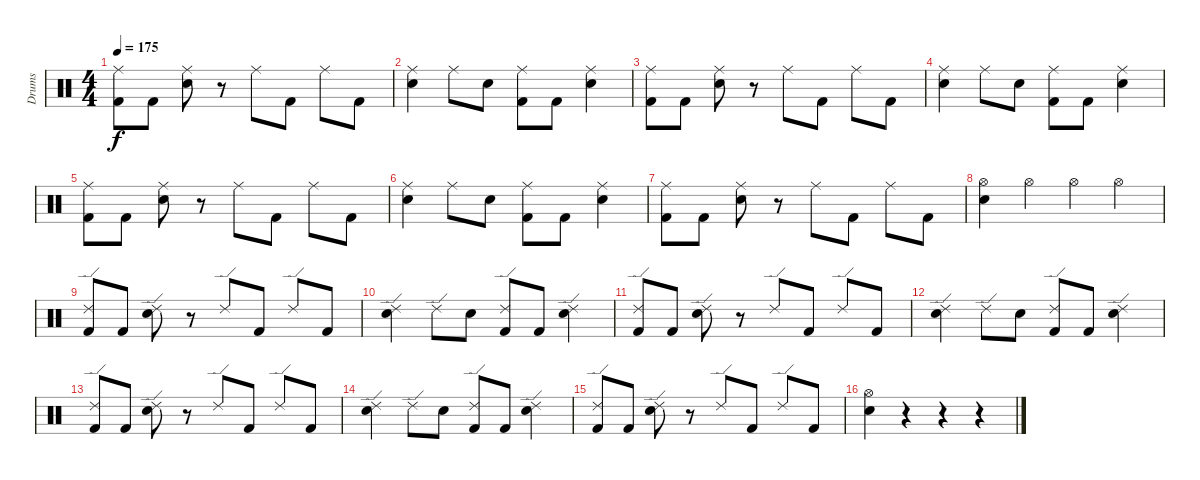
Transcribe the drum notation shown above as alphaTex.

\track ("Drums" "Drums") {instrument percussion}
\staff {score}
\articulation defaults
\ts (4 4)
\tempo 175
\clef neutral
\ks c
("Ride (middle)" "Kick (hit) 2").8{dy f} "Kick (hit) 2".8 ("Ride (middle)" "Electric Snare (hit)").8 r.8 "Ride (middle)".8 "Kick (hit) 2".8 "Ride (middle)".8 "Kick (hit) 2".8 |
("Ride (middle)" "Electric Snare (hit)").4 "Ride (middle)".8 "Electric Snare (hit)".8 ("Ride (middle)" "Kick (hit) 2").8 "Kick (hit) 2".8 ("Ride (middle)" "Electric Snare (hit)").4 |
("Ride (middle)" "Kick (hit) 2").8 "Kick (hit) 2".8 ("Ride (middle)" "Electric Snare (hit)").8 r.8 "Ride (middle)".8 "Kick (hit) 2".8 "Ride (middle)".8 "Kick (hit) 2".8 |
("Ride (middle)" "Electric Snare (hit)").4 "Ride (middle)".8 "Electric Snare (hit)".8 ("Ride (middle)" "Kick (hit) 2").8 "Kick (hit) 2".8 ("Ride (middle)" "Electric Snare (hit)").4 |
("Ride (middle)" "Kick (hit) 2").8 "Kick (hit) 2".8 ("Ride (middle)" "Electric Snare (hit)").8 r.8 "Ride (middle)".8 "Kick (hit) 2".8 "Ride (middle)".8 "Kick (hit) 2".8 |
("Ride (middle)" "Electric Snare (hit)").4 "Ride (middle)".8 "Electric Snare (hit)".8 ("Ride (middle)" "Kick (hit) 2").8 "Kick (hit) 2".8 ("Ride (middle)" "Electric Snare (hit)").4 |
("Ride (middle)" "Kick (hit) 2").8 "Kick (hit) 2".8 ("Ride (middle)" "Electric Snare (hit)").8 r.8 "Ride (middle)".8 "Kick (hit) 2".8 "Ride (middle)".8 "Kick (hit) 2".8 |
("Hi-Hat (open)" "Electric Snare (hit)").4 "Hi-Hat (open)".4 "Hi-Hat (open)".4 "Hi-Hat (open)".4 |
("Ride (edge) 2" "Kick (hit) 2").8 "Kick (hit) 2".8 ("Ride (edge) 2" "Electric Snare (hit)").8 r.8 "Ride (edge) 2".8 "Kick (hit) 2".8 "Ride (edge) 2".8 "Kick (hit) 2".8 |
("Ride (edge) 2" "Electric Snare (hit)").4 "Ride (edge) 2".8 "Electric Snare (hit)".8 ("Ride (edge) 2" "Kick (hit) 2").8 "Kick (hit) 2".8 ("Ride (edge) 2" "Electric Snare (hit)").4 |
("Ride (edge) 2" "Kick (hit) 2").8 "Kick (hit) 2".8 ("Ride (edge) 2" "Electric Snare (hit)").8 r.8 "Ride (edge) 2".8 "Kick (hit) 2".8 "Ride (edge) 2".8 "Kick (hit) 2".8 |
("Ride (edge) 2" "Electric Snare (hit)").4 "Ride (edge) 2".8 "Electric Snare (hit)".8 ("Ride (edge) 2" "Kick (hit) 2").8 "Kick (hit) 2".8 ("Ride (edge) 2" "Electric Snare (hit)").4 |
("Ride (edge) 2" "Kick (hit) 2").8 "Kick (hit) 2".8 ("Ride (edge) 2" "Electric Snare (hit)").8 r.8 "Ride (edge) 2".8 "Kick (hit) 2".8 "Ride (edge) 2".8 "Kick (hit) 2".8 |
("Ride (edge) 2" "Electric Snare (hit)").4 "Ride (edge) 2".8 "Electric Snare (hit)".8 ("Ride (edge) 2" "Kick (hit) 2").8 "Kick (hit) 2".8 ("Ride (edge) 2" "Electric Snare (hit)").4 |
("Ride (edge) 2" "Kick (hit) 2").8 "Kick (hit) 2".8 ("Ride (edge) 2" "Electric Snare (hit)").8 r.8 "Ride (edge) 2".8 "Kick (hit) 2".8 "Ride (edge) 2".8 "Kick (hit) 2".8 |
("Hi-Hat (open)" "Electric Snare (hit)").4 r.4 r.4 r.4
